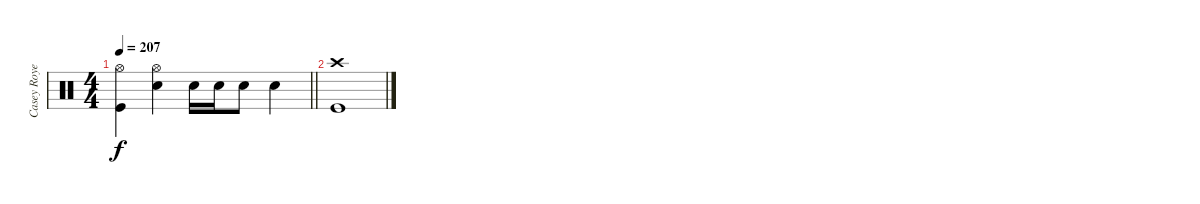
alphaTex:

\track ("Casey Royer (Drums)" "Casey Roye") {instrument percussion}
\staff {score}
\articulation defaults
\ts (4 4)
\tempo 207
\clef neutral
\barLineRight lightlight
\ks c
("Hi-Hat (open)" "Kick (hit)").4{dy f} ("Hi-Hat (open)" "Snare (hit) 2").4 "Snare (hit) 2".16 "Snare (hit) 2".16 "Snare (hit) 2".8 "Snare (hit) 2".4 |
("Crash high (hit)" "Kick (hit)").1
